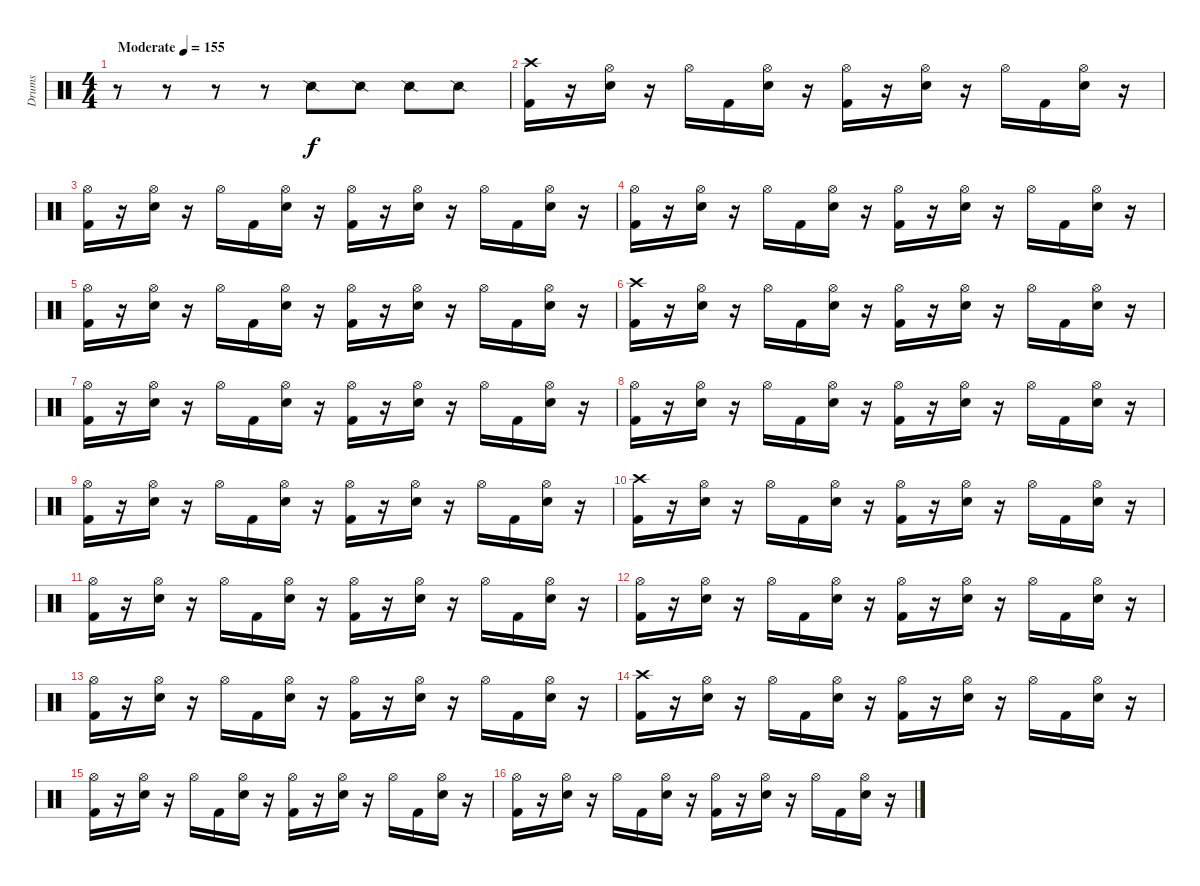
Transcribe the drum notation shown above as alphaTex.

\track ("Drums" "Drums") {instrument percussion}
\staff {score}
\articulation defaults
\ts (4 4)
\tempo (155 "Moderate")
\clef neutral
\ks c
r.8{dy f} r.8 r.8 r.8 "Snare (side stick) 2".8 "Snare (side stick) 2".8 "Snare (side stick) 2".8 "Snare (side stick) 2".8 |
("Crash high (hit)" "Kick (hit) 2").16 r.16 ("Hi-Hat (open)" "Electric Snare (hit)").16 r.16 "Hi-Hat (open)".16 "Kick (hit) 2".16 ("Hi-Hat (open)" "Electric Snare (hit)").16 r.16 ("Hi-Hat (open)" "Kick (hit) 2").16 r.16 ("Hi-Hat (open)" "Electric Snare (hit)").16 r.16 "Hi-Hat (open)".16 "Kick (hit) 2".16 ("Hi-Hat (open)" "Electric Snare (hit)").16 r.16 |
("Hi-Hat (open)" "Kick (hit) 2").16 r.16 ("Hi-Hat (open)" "Electric Snare (hit)").16 r.16 "Hi-Hat (open)".16 "Kick (hit) 2".16 ("Hi-Hat (open)" "Electric Snare (hit)").16 r.16 ("Hi-Hat (open)" "Kick (hit) 2").16 r.16 ("Hi-Hat (open)" "Electric Snare (hit)").16 r.16 "Hi-Hat (open)".16 "Kick (hit) 2".16 ("Hi-Hat (open)" "Electric Snare (hit)").16 r.16 |
("Hi-Hat (open)" "Kick (hit) 2").16 r.16 ("Hi-Hat (open)" "Electric Snare (hit)").16 r.16 "Hi-Hat (open)".16 "Kick (hit) 2".16 ("Hi-Hat (open)" "Electric Snare (hit)").16 r.16 ("Hi-Hat (open)" "Kick (hit) 2").16 r.16 ("Hi-Hat (open)" "Electric Snare (hit)").16 r.16 "Hi-Hat (open)".16 "Kick (hit) 2".16 ("Hi-Hat (open)" "Electric Snare (hit)").16 r.16 |
("Hi-Hat (open)" "Kick (hit) 2").16 r.16 ("Hi-Hat (open)" "Electric Snare (hit)").16 r.16 "Hi-Hat (open)".16 "Kick (hit) 2".16 ("Hi-Hat (open)" "Electric Snare (hit)").16 r.16 ("Hi-Hat (open)" "Kick (hit) 2").16 r.16 ("Hi-Hat (open)" "Electric Snare (hit)").16 r.16 "Hi-Hat (open)".16 "Kick (hit) 2".16 ("Hi-Hat (open)" "Electric Snare (hit)").16 r.16 |
("Crash high (hit)" "Kick (hit) 2").16 r.16 ("Hi-Hat (open)" "Electric Snare (hit)").16 r.16 "Hi-Hat (open)".16 "Kick (hit) 2".16 ("Hi-Hat (open)" "Electric Snare (hit)").16 r.16 ("Hi-Hat (open)" "Kick (hit) 2").16 r.16 ("Hi-Hat (open)" "Electric Snare (hit)").16 r.16 "Hi-Hat (open)".16 "Kick (hit) 2".16 ("Hi-Hat (open)" "Electric Snare (hit)").16 r.16 |
("Hi-Hat (open)" "Kick (hit) 2").16 r.16 ("Hi-Hat (open)" "Electric Snare (hit)").16 r.16 "Hi-Hat (open)".16 "Kick (hit) 2".16 ("Hi-Hat (open)" "Electric Snare (hit)").16 r.16 ("Hi-Hat (open)" "Kick (hit) 2").16 r.16 ("Hi-Hat (open)" "Electric Snare (hit)").16 r.16 "Hi-Hat (open)".16 "Kick (hit) 2".16 ("Hi-Hat (open)" "Electric Snare (hit)").16 r.16 |
("Hi-Hat (open)" "Kick (hit) 2").16 r.16 ("Hi-Hat (open)" "Electric Snare (hit)").16 r.16 "Hi-Hat (open)".16 "Kick (hit) 2".16 ("Hi-Hat (open)" "Electric Snare (hit)").16 r.16 ("Hi-Hat (open)" "Kick (hit) 2").16 r.16 ("Hi-Hat (open)" "Electric Snare (hit)").16 r.16 "Hi-Hat (open)".16 "Kick (hit) 2".16 ("Hi-Hat (open)" "Electric Snare (hit)").16 r.16 |
("Hi-Hat (open)" "Kick (hit) 2").16 r.16 ("Hi-Hat (open)" "Electric Snare (hit)").16 r.16 "Hi-Hat (open)".16 "Kick (hit) 2".16 ("Hi-Hat (open)" "Electric Snare (hit)").16 r.16 ("Hi-Hat (open)" "Kick (hit) 2").16 r.16 ("Hi-Hat (open)" "Electric Snare (hit)").16 r.16 "Hi-Hat (open)".16 "Kick (hit) 2".16 ("Hi-Hat (open)" "Electric Snare (hit)").16 r.16 |
("Crash high (hit)" "Kick (hit) 2").16 r.16 ("Hi-Hat (open)" "Electric Snare (hit)").16 r.16 "Hi-Hat (open)".16 "Kick (hit) 2".16 ("Hi-Hat (open)" "Electric Snare (hit)").16 r.16 ("Hi-Hat (open)" "Kick (hit) 2").16 r.16 ("Hi-Hat (open)" "Electric Snare (hit)").16 r.16 "Hi-Hat (open)".16 "Kick (hit) 2".16 ("Hi-Hat (open)" "Electric Snare (hit)").16 r.16 |
("Hi-Hat (open)" "Kick (hit) 2").16 r.16 ("Hi-Hat (open)" "Electric Snare (hit)").16 r.16 "Hi-Hat (open)".16 "Kick (hit) 2".16 ("Hi-Hat (open)" "Electric Snare (hit)").16 r.16 ("Hi-Hat (open)" "Kick (hit) 2").16 r.16 ("Hi-Hat (open)" "Electric Snare (hit)").16 r.16 "Hi-Hat (open)".16 "Kick (hit) 2".16 ("Hi-Hat (open)" "Electric Snare (hit)").16 r.16 |
("Hi-Hat (open)" "Kick (hit) 2").16 r.16 ("Hi-Hat (open)" "Electric Snare (hit)").16 r.16 "Hi-Hat (open)".16 "Kick (hit) 2".16 ("Hi-Hat (open)" "Electric Snare (hit)").16 r.16 ("Hi-Hat (open)" "Kick (hit) 2").16 r.16 ("Hi-Hat (open)" "Electric Snare (hit)").16 r.16 "Hi-Hat (open)".16 "Kick (hit) 2".16 ("Hi-Hat (open)" "Electric Snare (hit)").16 r.16 |
("Hi-Hat (open)" "Kick (hit) 2").16 r.16 ("Hi-Hat (open)" "Electric Snare (hit)").16 r.16 "Hi-Hat (open)".16 "Kick (hit) 2".16 ("Hi-Hat (open)" "Electric Snare (hit)").16 r.16 ("Hi-Hat (open)" "Kick (hit) 2").16 r.16 ("Hi-Hat (open)" "Electric Snare (hit)").16 r.16 "Hi-Hat (open)".16 "Kick (hit) 2".16 ("Hi-Hat (open)" "Electric Snare (hit)").16 r.16 |
("Crash high (hit)" "Kick (hit) 2").16 r.16 ("Hi-Hat (open)" "Electric Snare (hit)").16 r.16 "Hi-Hat (open)".16 "Kick (hit) 2".16 ("Hi-Hat (open)" "Electric Snare (hit)").16 r.16 ("Hi-Hat (open)" "Kick (hit) 2").16 r.16 ("Hi-Hat (open)" "Electric Snare (hit)").16 r.16 "Hi-Hat (open)".16 "Kick (hit) 2".16 ("Hi-Hat (open)" "Electric Snare (hit)").16 r.16 |
("Hi-Hat (open)" "Kick (hit) 2").16 r.16 ("Hi-Hat (open)" "Electric Snare (hit)").16 r.16 "Hi-Hat (open)".16 "Kick (hit) 2".16 ("Hi-Hat (open)" "Electric Snare (hit)").16 r.16 ("Hi-Hat (open)" "Kick (hit) 2").16 r.16 ("Hi-Hat (open)" "Electric Snare (hit)").16 r.16 "Hi-Hat (open)".16 "Kick (hit) 2".16 ("Hi-Hat (open)" "Electric Snare (hit)").16 r.16 |
("Hi-Hat (open)" "Kick (hit) 2").16 r.16 ("Hi-Hat (open)" "Electric Snare (hit)").16 r.16 "Hi-Hat (open)".16 "Kick (hit) 2".16 ("Hi-Hat (open)" "Electric Snare (hit)").16 r.16 ("Hi-Hat (open)" "Kick (hit) 2").16 r.16 ("Hi-Hat (open)" "Electric Snare (hit)").16 r.16 "Hi-Hat (open)".16 "Kick (hit) 2".16 ("Hi-Hat (open)" "Electric Snare (hit)").16 r.16
